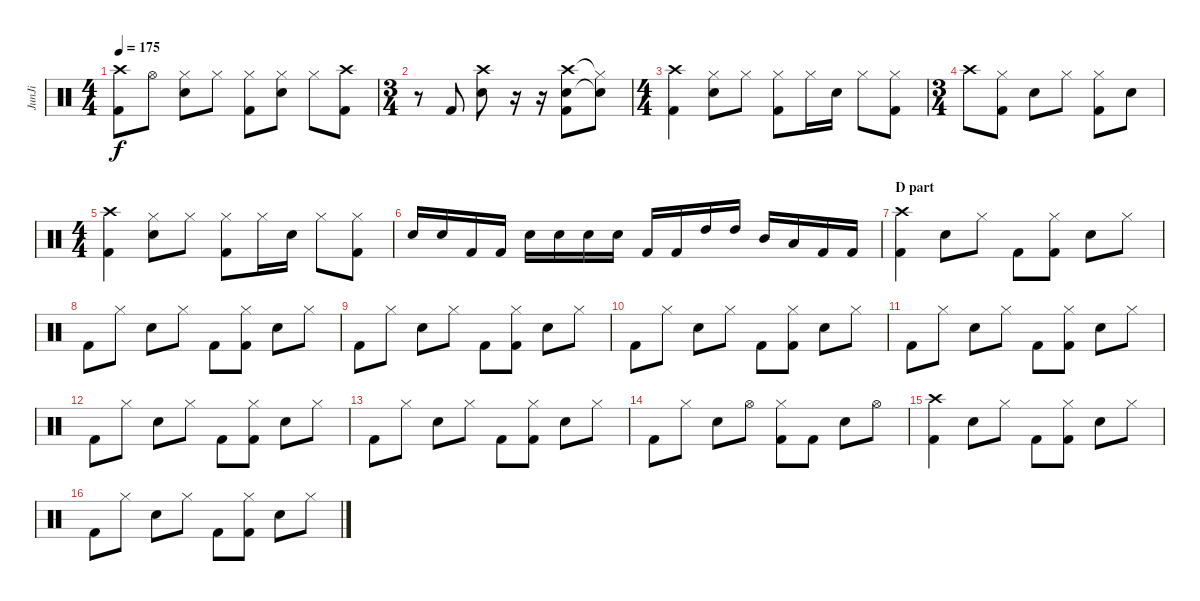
\track ("JunJi" "JunJi") {instrument percussion}
\staff {score}
\articulation defaults
\ts (4 4)
\tempo 175
\clef neutral
\ks c
("Kick (hit) 2" "Crash high (hit)").8{dy f} "Hi-Hat (open)".8 ("Hi-Hat (closed)" "Snare (hit) 2").8 "Hi-Hat (closed)".8 ("Hi-Hat (closed)" "Kick (hit) 2").8 ("Hi-Hat (closed)" "Snare (hit) 2").8 "Hi-Hat (closed)".8 ("Kick (hit) 2" "Crash high (hit)").8 |
\ts (3 4)
r.8 "Kick (hit) 2".8 ("Crash high (hit)" "Snare (hit) 2").8 r.16 r.16 ("Crash high (hit)" "Snare (hit) 2" "Kick (hit) 2").8 ("Hi-Hat (closed)"{t} "Snare (hit) 2"{t}).8 |
\ts (4 4)
("Kick (hit) 2" "Crash high (hit)").4 ("Hi-Hat (closed)" "Snare (hit) 2").8 "Hi-Hat (closed)".8 ("Hi-Hat (closed)" "Kick (hit) 2").8 "Hi-Hat (closed)".16 "Snare (hit) 2".16 "Hi-Hat (closed)".8 ("Kick (hit) 2" "Hi-Hat (closed)").8 |
\ts (3 4)
"Crash high (hit)".8 ("Hi-Hat (closed)" "Kick (hit) 2").8 "Snare (hit) 2".8 "Hi-Hat (closed)".8 ("Hi-Hat (closed)" "Kick (hit) 2").8 "Snare (hit) 2".8 |
\ts (4 4)
("Kick (hit) 2" "Crash high (hit)").4 ("Hi-Hat (closed)" "Snare (hit) 2").8 "Hi-Hat (closed)".8 ("Hi-Hat (closed)" "Kick (hit) 2").8 "Hi-Hat (closed)".16 "Snare (hit) 2".16 "Hi-Hat (closed)".8 ("Kick (hit) 2" "Hi-Hat (closed)").8 |
"Snare (hit) 2".16 "Snare (hit) 2".16 "Kick (hit) 2".16 "Kick (hit) 2".16 "Snare (hit) 2".16 "Snare (hit) 2".16 "Snare (hit) 2".16 "Snare (hit) 2".16 "Kick (hit) 2".16 "Kick (hit) 2".16 "High Tom (hit)".16 "High Tom (hit)".16 "Mid Tom (hit)".16 "Low Tom (hit)".16 "Kick (hit) 2".16 "Kick (hit) 2".16 |
\section ("" "D part")
("Crash high (hit)" "Kick (hit) 2").4 "Snare (hit) 2".8 "Hi-Hat (closed)".8 "Kick (hit) 2".8 ("Kick (hit) 2" "Hi-Hat (closed)").8 "Snare (hit) 2".8 "Hi-Hat (closed)".8 |
"Kick (hit) 2".8 "Hi-Hat (closed)".8 "Snare (hit) 2".8 "Hi-Hat (closed)".8 "Kick (hit) 2".8 ("Hi-Hat (closed)" "Kick (hit) 2").8 "Snare (hit) 2".8 "Hi-Hat (closed)".8 |
"Kick (hit) 2".8 "Hi-Hat (closed)".8 "Snare (hit) 2".8 "Hi-Hat (closed)".8 "Kick (hit) 2".8 ("Hi-Hat (closed)" "Kick (hit) 2").8 "Snare (hit) 2".8 "Hi-Hat (closed)".8 |
"Kick (hit) 2".8 "Hi-Hat (closed)".8 "Snare (hit) 2".8 "Hi-Hat (closed)".8 "Kick (hit) 2".8 ("Hi-Hat (closed)" "Kick (hit) 2").8 "Snare (hit) 2".8 "Hi-Hat (closed)".8 |
"Kick (hit) 2".8 "Hi-Hat (closed)".8 "Snare (hit) 2".8 "Hi-Hat (closed)".8 "Kick (hit) 2".8 ("Hi-Hat (closed)" "Kick (hit) 2").8 "Snare (hit) 2".8 "Hi-Hat (closed)".8 |
"Kick (hit) 2".8 "Hi-Hat (closed)".8 "Snare (hit) 2".8 "Hi-Hat (closed)".8 "Kick (hit) 2".8 ("Hi-Hat (closed)" "Kick (hit) 2").8 "Snare (hit) 2".8 "Hi-Hat (closed)".8 |
"Kick (hit) 2".8 "Hi-Hat (closed)".8 "Snare (hit) 2".8 "Hi-Hat (closed)".8 "Kick (hit) 2".8 ("Hi-Hat (closed)" "Kick (hit) 2").8 "Snare (hit) 2".8 "Hi-Hat (closed)".8 |
"Kick (hit) 2".8 "Hi-Hat (closed)".8 "Snare (hit) 2".8 "Hi-Hat (open)".8 ("Hi-Hat (closed)" "Kick (hit) 2").8 "Kick (hit) 2".8 "Snare (hit) 2".8 "Hi-Hat (open)".8 |
("Crash high (hit)" "Kick (hit) 2").4 "Snare (hit) 2".8 "Hi-Hat (closed)".8 "Kick (hit) 2".8 ("Kick (hit) 2" "Hi-Hat (closed)").8 "Snare (hit) 2".8 "Hi-Hat (closed)".8 |
"Kick (hit) 2".8 "Hi-Hat (closed)".8 "Snare (hit) 2".8 "Hi-Hat (closed)".8 "Kick (hit) 2".8 ("Hi-Hat (closed)" "Kick (hit) 2").8 "Snare (hit) 2".8 "Hi-Hat (closed)".8
